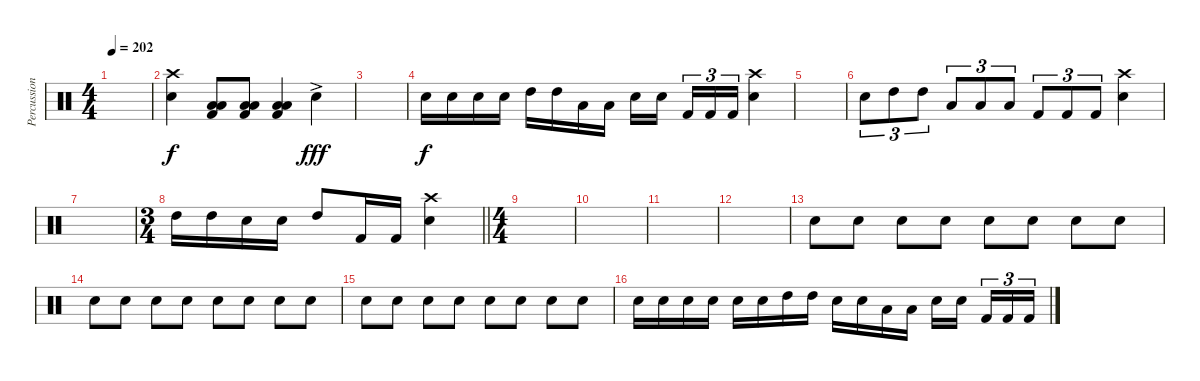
\track ("Percussion" "Percussion") {instrument percussion}
\staff {score}
\articulation defaults
\ts (4 4)
\tempo 202
\clef neutral
\ks c
|
("Crash high (hit)" "Electric Snare (hit)").4 ("Low Tom (hit)" "Low Floor Tom (hit)" "Kick (hit) 2").8 ("Low Tom (hit)" "Low Floor Tom (hit)" "Kick (hit) 2").8 ("Low Tom (hit)" "Low Floor Tom (hit)" "Kick (hit) 2").4 "Electric Snare (hit)"{ac}.4{dy fff} |
|
"Electric Snare (hit)".16{dy f} "Electric Snare (hit)".16 "Electric Snare (hit)".16 "Electric Snare (hit)".16 "High Tom (hit)".16 "High Tom (hit)".16 "Low Tom (hit)".16 "Low Tom (hit)".16 "Electric Snare (hit)".16 "Electric Snare (hit)".16{beam splitsecondary} "Kick (hit) 2".16{tu (3 2)} "Kick (hit) 2".16{tu (3 2)} "Kick (hit) 2".16{tu (3 2)} ("Crash high (hit)" "Electric Snare (hit)").4 |
|
"Electric Snare (hit)".8{tu (3 2)} "High Tom (hit)".8{tu (3 2)} "High Tom (hit)".8{tu (3 2)} "Low Tom (hit)".8{tu (3 2)} "Low Tom (hit)".8{tu (3 2)} "Low Tom (hit)".8{tu (3 2)} "Kick (hit) 2".8{tu (3 2)} "Kick (hit) 2".8{tu (3 2)} "Kick (hit) 2".8{tu (3 2)} ("Crash high (hit)" "Electric Snare (hit)").4 |
|
\ts (3 4)
\barLineRight lightlight "High Tom (hit)".16 "High Tom (hit)".16 "Electric Snare (hit)".16 "Electric Snare (hit)".16 "High Tom (hit)".8 "Kick (hit) 2".16 "Kick (hit) 2".16
("Crash high (hit)" "Electric Snare (hit)").4 |
\ts (4 4)
|
|
|
|
"Electric Snare (hit)".8{volume 16} "Electric Snare (hit)".8 "Electric Snare (hit)".8 "Electric Snare (hit)".8 "Electric Snare (hit)".8 "Electric Snare (hit)".8 "Electric Snare (hit)".8 "Electric Snare (hit)".8 |
"Electric Snare (hit)".8 "Electric Snare (hit)".8 "Electric Snare (hit)".8 "Electric Snare (hit)".8 "Electric Snare (hit)".8 "Electric Snare (hit)".8 "Electric Snare (hit)".8 "Electric Snare (hit)".8 |
"Electric Snare (hit)".8 "Electric Snare (hit)".8 "Electric Snare (hit)".8 "Electric Snare (hit)".8 "Electric Snare (hit)".8 "Electric Snare (hit)".8 "Electric Snare (hit)".8 "Electric Snare (hit)".8 |
"Electric Snare (hit)".16 "Electric Snare (hit)".16 "Electric Snare (hit)".16 "Electric Snare (hit)".16 "Electric Snare (hit)".16 "Electric Snare (hit)".16 "High Tom (hit)".16 "High Tom (hit)".16 "Electric Snare (hit)".16 "Electric Snare (hit)".16 "Low Tom (hit)".16 "Low Tom (hit)".16 "Electric Snare (hit)".16 "Electric Snare (hit)".16{beam splitsecondary} "Kick (hit) 2".16{tu (3 2)} "Kick (hit) 2".16{tu (3 2)} "Kick (hit) 2".16{tu (3 2)}
